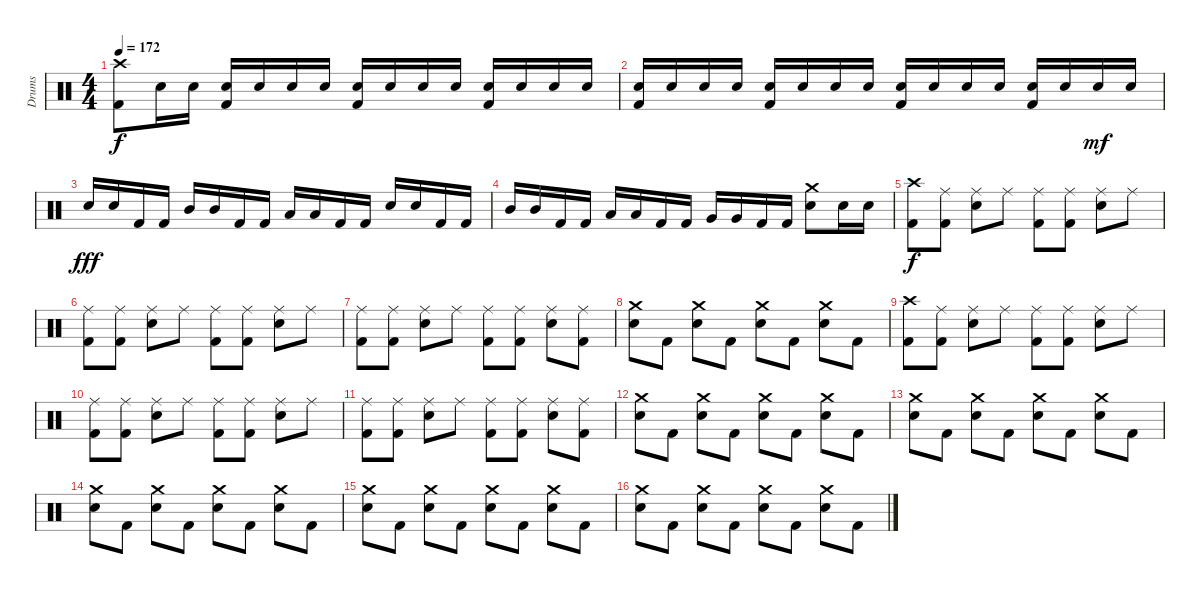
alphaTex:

\track ("Drums" "Drums") {instrument percussion}
\staff {score}
\articulation defaults
\ts (4 4)
\tempo 172
\clef neutral
\ks c
("Crash high (hit)" "Kick (hit) 2").8{dy f} "Snare (hit) 2".16 "Snare (hit) 2".16 ("Snare (hit) 2" "Kick (hit) 2").16 "Snare (hit) 2".16 "Snare (hit) 2".16 "Snare (hit) 2".16 ("Snare (hit) 2" "Kick (hit) 2").16 "Snare (hit) 2".16 "Snare (hit) 2".16 "Snare (hit) 2".16 ("Snare (hit) 2" "Kick (hit) 2").16 "Snare (hit) 2".16 "Snare (hit) 2".16 "Snare (hit) 2".16 |
("Snare (hit) 2" "Kick (hit) 2").16 "Snare (hit) 2".16 "Snare (hit) 2".16 "Snare (hit) 2".16 ("Snare (hit) 2" "Kick (hit) 2").16 "Snare (hit) 2".16 "Snare (hit) 2".16 "Snare (hit) 2".16 ("Snare (hit) 2" "Kick (hit) 2").16 "Snare (hit) 2".16 "Snare (hit) 2".16 "Snare (hit) 2".16 ("Snare (hit) 2" "Kick (hit) 2").16 "Snare (hit) 2".16 "Snare (hit) 2".16{dy mf} "Snare (hit) 2".16 |
"Snare (hit) 2".16{dy fff} "Snare (hit) 2".16 "Kick (hit) 2".16 "Kick (hit) 2".16 "Mid Tom (hit)".16 "Mid Tom (hit)".16 "Kick (hit) 2".16 "Kick (hit) 2".16 "Low Tom (hit)".16 "Low Tom (hit)".16 "Kick (hit) 2".16 "Kick (hit) 2".16 "Snare (hit) 2".16 "Snare (hit) 2".16 "Kick (hit) 2".16 "Kick (hit) 2".16 |
"Mid Tom (hit)".16 "Mid Tom (hit)".16 "Kick (hit) 2".16 "Kick (hit) 2".16 "Low Tom (hit)".16 "Low Tom (hit)".16 "Kick (hit) 2".16 "Kick (hit) 2".16 "Very Low Tom (hit)".16 "Very Low Tom (hit)".16 "Kick (hit) 2".16 "Kick (hit) 2".16 ("Crash medium (hit)" "Snare (hit) 2").8 "Snare (hit) 2".16 "Snare (hit) 2".16 |
("Crash high (hit)" "Kick (hit) 2").8{dy f} ("Ride (middle)" "Kick (hit) 2").8 ("Ride (middle)" "Snare (hit) 2").8 "Ride (middle)".8 ("Ride (middle)" "Kick (hit) 2").8 ("Ride (middle)" "Kick (hit) 2").8 ("Ride (middle)" "Snare (hit) 2").8 "Ride (middle)".8 |
("Ride (middle)" "Kick (hit) 2").8 ("Ride (middle)" "Kick (hit) 2").8 ("Ride (middle)" "Snare (hit) 2").8 "Ride (middle)".8 ("Ride (middle)" "Kick (hit) 2").8 ("Ride (middle)" "Kick (hit) 2").8 ("Ride (middle)" "Snare (hit) 2").8 "Ride (middle)".8 |
("Ride (middle)" "Kick (hit) 2").8 ("Ride (middle)" "Kick (hit) 2").8 ("Ride (middle)" "Snare (hit) 2").8 "Ride (middle)".8 ("Ride (middle)" "Kick (hit) 2").8 ("Ride (middle)" "Kick (hit) 2").8 ("Ride (middle)" "Snare (hit) 2").8 ("Ride (middle)" "Kick (hit) 2").8 |
("Crash medium (hit)" "Snare (hit) 2").8 "Kick (hit) 2".8 ("Crash medium (hit)" "Snare (hit) 2").8 "Kick (hit) 2".8 ("Crash medium (hit)" "Snare (hit) 2").8 "Kick (hit) 2".8 ("Crash medium (hit)" "Snare (hit) 2").8 "Kick (hit) 2".8 |
("Crash high (hit)" "Kick (hit) 2").8 ("Ride (middle)" "Kick (hit) 2").8 ("Ride (middle)" "Snare (hit) 2").8 "Ride (middle)".8 ("Ride (middle)" "Kick (hit) 2").8 ("Ride (middle)" "Kick (hit) 2").8 ("Ride (middle)" "Snare (hit) 2").8 "Ride (middle)".8 |
("Ride (middle)" "Kick (hit) 2").8 ("Ride (middle)" "Kick (hit) 2").8 ("Ride (middle)" "Snare (hit) 2").8 "Ride (middle)".8 ("Ride (middle)" "Kick (hit) 2").8 ("Ride (middle)" "Kick (hit) 2").8 ("Ride (middle)" "Snare (hit) 2").8 "Ride (middle)".8 |
("Ride (middle)" "Kick (hit) 2").8 ("Ride (middle)" "Kick (hit) 2").8 ("Ride (middle)" "Snare (hit) 2").8 "Ride (middle)".8 ("Ride (middle)" "Kick (hit) 2").8 ("Ride (middle)" "Kick (hit) 2").8 ("Ride (middle)" "Snare (hit) 2").8 ("Ride (middle)" "Kick (hit) 2").8 |
("Crash medium (hit)" "Snare (hit) 2").8 "Kick (hit) 2".8 ("Crash medium (hit)" "Snare (hit) 2").8 "Kick (hit) 2".8 ("Crash medium (hit)" "Snare (hit) 2").8 "Kick (hit) 2".8 ("Crash medium (hit)" "Snare (hit) 2").8 "Kick (hit) 2".8 |
("Crash medium (hit)" "Snare (hit) 2").8 "Kick (hit) 2".8 ("Crash medium (hit)" "Snare (hit) 2").8 "Kick (hit) 2".8 ("Crash medium (hit)" "Snare (hit) 2").8 "Kick (hit) 2".8 ("Crash medium (hit)" "Snare (hit) 2").8 "Kick (hit) 2".8 |
("Crash medium (hit)" "Snare (hit) 2").8 "Kick (hit) 2".8 ("Crash medium (hit)" "Snare (hit) 2").8 "Kick (hit) 2".8 ("Crash medium (hit)" "Snare (hit) 2").8 "Kick (hit) 2".8 ("Crash medium (hit)" "Snare (hit) 2").8 "Kick (hit) 2".8 |
("Crash medium (hit)" "Snare (hit) 2").8 "Kick (hit) 2".8 ("Crash medium (hit)" "Snare (hit) 2").8 "Kick (hit) 2".8 ("Crash medium (hit)" "Snare (hit) 2").8 "Kick (hit) 2".8 ("Crash medium (hit)" "Snare (hit) 2").8 "Kick (hit) 2".8 |
("Crash medium (hit)" "Snare (hit) 2").8 "Kick (hit) 2".8 ("Crash medium (hit)" "Snare (hit) 2").8 "Kick (hit) 2".8 ("Crash medium (hit)" "Snare (hit) 2").8 "Kick (hit) 2".8 ("Crash medium (hit)" "Snare (hit) 2").8 "Kick (hit) 2".8
